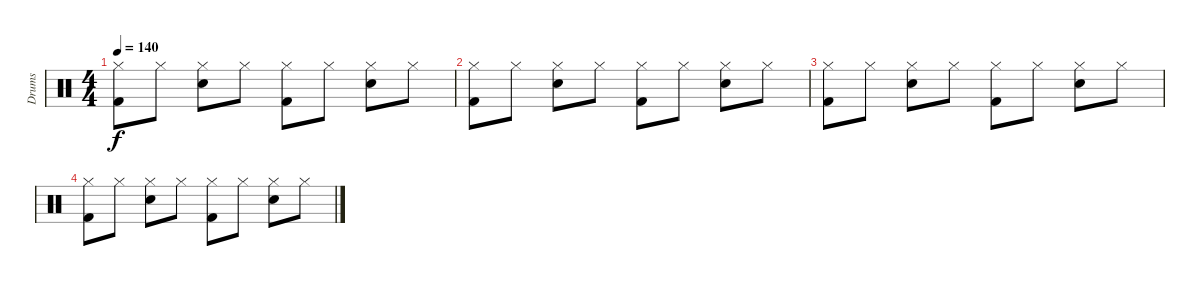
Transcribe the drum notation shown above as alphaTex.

\track ("Drums" "Drums") {instrument percussion}
\staff {score}
\articulation defaults
\ts (4 4)
\tempo 140
\clef neutral
\ks c
("Hi-Hat (closed)" "Kick (hit) 2").8{dy f} "Hi-Hat (closed)".8 ("Hi-Hat (closed)" "Electric Snare (hit)").8 "Hi-Hat (closed)".8 ("Hi-Hat (closed)" "Kick (hit) 2").8 "Hi-Hat (closed)".8 ("Hi-Hat (closed)" "Electric Snare (hit)").8 "Hi-Hat (closed)".8 |
("Hi-Hat (closed)" "Kick (hit) 2").8 "Hi-Hat (closed)".8 ("Hi-Hat (closed)" "Electric Snare (hit)").8 "Hi-Hat (closed)".8 ("Hi-Hat (closed)" "Kick (hit) 2").8 "Hi-Hat (closed)".8 ("Hi-Hat (closed)" "Electric Snare (hit)").8 "Hi-Hat (closed)".8 |
("Hi-Hat (closed)" "Kick (hit) 2").8 "Hi-Hat (closed)".8 ("Hi-Hat (closed)" "Electric Snare (hit)").8 "Hi-Hat (closed)".8 ("Hi-Hat (closed)" "Kick (hit) 2").8 "Hi-Hat (closed)".8 ("Hi-Hat (closed)" "Electric Snare (hit)").8 "Hi-Hat (closed)".8 |
("Hi-Hat (closed)" "Kick (hit) 2").8 "Hi-Hat (closed)".8 ("Hi-Hat (closed)" "Electric Snare (hit)").8 "Hi-Hat (closed)".8 ("Hi-Hat (closed)" "Kick (hit) 2").8 "Hi-Hat (closed)".8 ("Hi-Hat (closed)" "Electric Snare (hit)").8 "Hi-Hat (closed)".8
